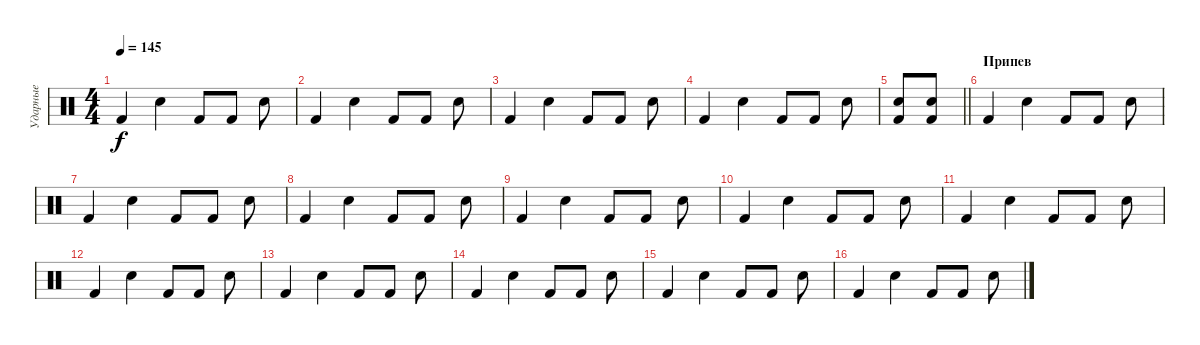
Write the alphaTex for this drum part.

\track ("Ударные" "Ударные") {instrument percussion}
\staff {score}
\articulation defaults
\ts (4 4)
\tempo 145
\clef neutral
\ks c "Kick (hit) 2".4{dy f} "Snare (hit) 2".4 "Kick (hit) 2".8 "Kick (hit) 2".8 "Snare (hit) 2".8
|
"Kick (hit) 2".4 "Snare (hit) 2".4 "Kick (hit) 2".8 "Kick (hit) 2".8 "Snare (hit) 2".8 |
"Kick (hit) 2".4 "Snare (hit) 2".4 "Kick (hit) 2".8 "Kick (hit) 2".8 "Snare (hit) 2".8 |
"Kick (hit) 2".4 "Snare (hit) 2".4 "Kick (hit) 2".8 "Kick (hit) 2".8 "Snare (hit) 2".8 |
\barLineRight lightlight
("Kick (hit) 2" "Snare (hit) 2").8 ("Kick (hit) 2" "Snare (hit) 2").8 |
\section ("" "Припев")
"Kick (hit) 2".4 "Snare (hit) 2".4 "Kick (hit) 2".8 "Kick (hit) 2".8 "Snare (hit) 2".8 |
"Kick (hit) 2".4 "Snare (hit) 2".4 "Kick (hit) 2".8 "Kick (hit) 2".8 "Snare (hit) 2".8 |
"Kick (hit) 2".4 "Snare (hit) 2".4 "Kick (hit) 2".8 "Kick (hit) 2".8 "Snare (hit) 2".8 |
"Kick (hit) 2".4 "Snare (hit) 2".4 "Kick (hit) 2".8 "Kick (hit) 2".8 "Snare (hit) 2".8 |
"Kick (hit) 2".4 "Snare (hit) 2".4 "Kick (hit) 2".8 "Kick (hit) 2".8 "Snare (hit) 2".8 |
"Kick (hit) 2".4 "Snare (hit) 2".4 "Kick (hit) 2".8 "Kick (hit) 2".8 "Snare (hit) 2".8 |
"Kick (hit) 2".4 "Snare (hit) 2".4 "Kick (hit) 2".8 "Kick (hit) 2".8 "Snare (hit) 2".8 |
"Kick (hit) 2".4 "Snare (hit) 2".4 "Kick (hit) 2".8 "Kick (hit) 2".8 "Snare (hit) 2".8 |
"Kick (hit) 2".4 "Snare (hit) 2".4 "Kick (hit) 2".8 "Kick (hit) 2".8 "Snare (hit) 2".8 |
"Kick (hit) 2".4 "Snare (hit) 2".4 "Kick (hit) 2".8 "Kick (hit) 2".8 "Snare (hit) 2".8 |
"Kick (hit) 2".4 "Snare (hit) 2".4 "Kick (hit) 2".8 "Kick (hit) 2".8 "Snare (hit) 2".8
